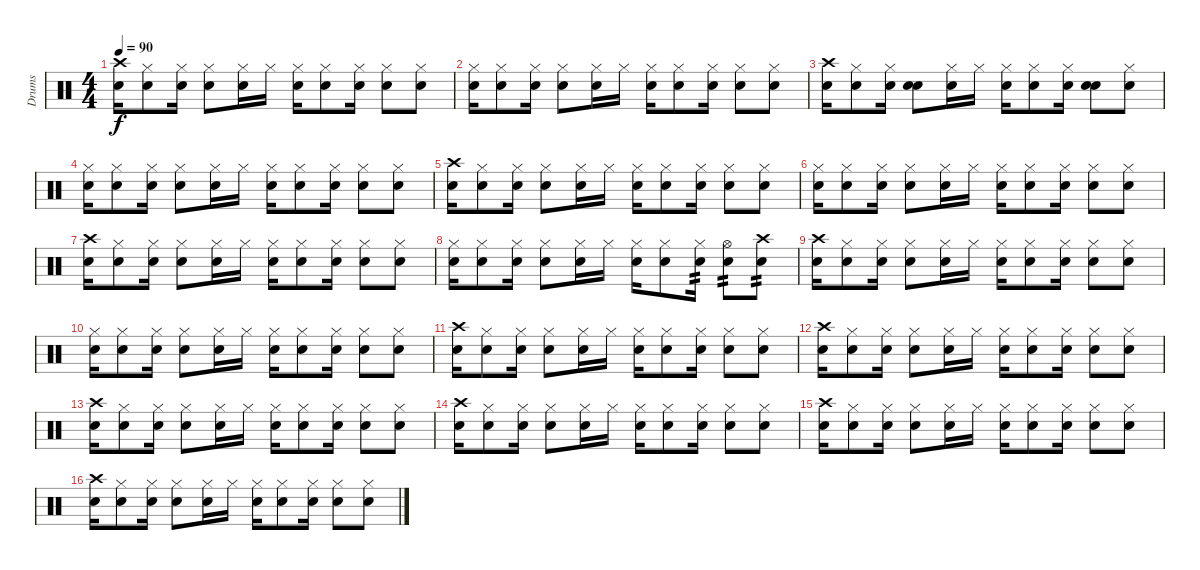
\track ("Drums" "Drums") {instrument percussion}
\staff {score}
\articulation defaults
\ts (4 4)
\tempo 90
\clef neutral
\ks c
("Crash high (hit)" "Snare (hit) 2").16{dy f} ("Hi-Hat (closed)" "Snare (hit) 2").8 ("Hi-Hat (closed)" "Snare (hit) 2").16 ("Hi-Hat (closed)" "Snare (hit) 2").8 ("Hi-Hat (closed)" "Snare (hit) 2").16 "Hi-Hat (closed)".16 ("Hi-Hat (closed)" "Snare (hit) 2").16 ("Hi-Hat (closed)" "Snare (hit) 2").8 ("Hi-Hat (closed)" "Snare (hit) 2").16 ("Hi-Hat (closed)" "Snare (hit) 2").8 ("Hi-Hat (closed)" "Snare (hit) 2").8 |
("Hi-Hat (closed)" "Snare (hit) 2").16 ("Hi-Hat (closed)" "Snare (hit) 2").8 ("Hi-Hat (closed)" "Snare (hit) 2").16 ("Hi-Hat (closed)" "Snare (hit) 2").8 ("Hi-Hat (closed)" "Snare (hit) 2").16 "Hi-Hat (closed)".16 ("Hi-Hat (closed)" "Snare (hit) 2").16 ("Hi-Hat (closed)" "Snare (hit) 2").8 ("Hi-Hat (closed)" "Snare (hit) 2").16 ("Hi-Hat (closed)" "Snare (hit) 2").8 ("Hi-Hat (closed)" "Snare (hit) 2").8 |
("Crash high (hit)" "Snare (hit) 2").16 ("Hi-Hat (closed)" "Snare (hit) 2").8 ("Hi-Hat (closed)" "Snare (hit) 2").16 ("Snare (hit)" "Snare (hit) 2").8 ("Hi-Hat (closed)" "Snare (hit) 2").16 "Hi-Hat (closed)".16 ("Hi-Hat (closed)" "Snare (hit) 2").16 ("Hi-Hat (closed)" "Snare (hit) 2").8 ("Hi-Hat (closed)" "Snare (hit) 2").16 ("Snare (hit)" "Snare (hit) 2").8 ("Hi-Hat (closed)" "Snare (hit) 2").8 |
("Hi-Hat (closed)" "Snare (hit) 2").16 ("Hi-Hat (closed)" "Snare (hit) 2").8 ("Hi-Hat (closed)" "Snare (hit) 2").16 ("Hi-Hat (closed)" "Snare (hit) 2").8 ("Hi-Hat (closed)" "Snare (hit) 2").16 "Hi-Hat (closed)".16 ("Hi-Hat (closed)" "Snare (hit) 2").16 ("Hi-Hat (closed)" "Snare (hit) 2").8 ("Hi-Hat (closed)" "Snare (hit) 2").16 ("Hi-Hat (closed)" "Snare (hit) 2").8 ("Hi-Hat (closed)" "Snare (hit) 2").8 |
("Crash high (hit)" "Snare (hit) 2").16 ("Hi-Hat (closed)" "Snare (hit) 2").8 ("Hi-Hat (closed)" "Snare (hit) 2").16 ("Hi-Hat (closed)" "Snare (hit) 2").8 ("Hi-Hat (closed)" "Snare (hit) 2").16 "Hi-Hat (closed)".16 ("Hi-Hat (closed)" "Snare (hit) 2").16 ("Hi-Hat (closed)" "Snare (hit) 2").8 ("Hi-Hat (closed)" "Snare (hit) 2").16 ("Hi-Hat (closed)" "Snare (hit) 2").8 ("Hi-Hat (closed)" "Snare (hit) 2").8 |
("Hi-Hat (closed)" "Snare (hit) 2").16 ("Hi-Hat (closed)" "Snare (hit) 2").8 ("Hi-Hat (closed)" "Snare (hit) 2").16 ("Hi-Hat (closed)" "Snare (hit) 2").8 ("Hi-Hat (closed)" "Snare (hit) 2").16 "Hi-Hat (closed)".16 ("Hi-Hat (closed)" "Snare (hit) 2").16 ("Hi-Hat (closed)" "Snare (hit) 2").8 ("Hi-Hat (closed)" "Snare (hit) 2").16 ("Hi-Hat (closed)" "Snare (hit) 2").8 ("Hi-Hat (closed)" "Snare (hit) 2").8 |
("Crash high (hit)" "Snare (hit) 2").16 ("Hi-Hat (closed)" "Snare (hit) 2").8 ("Hi-Hat (closed)" "Snare (hit) 2").16 ("Hi-Hat (closed)" "Snare (hit) 2").8 ("Hi-Hat (closed)" "Snare (hit) 2").16 "Hi-Hat (closed)".16 ("Hi-Hat (closed)" "Snare (hit) 2").16 ("Hi-Hat (closed)" "Snare (hit) 2").8 ("Hi-Hat (closed)" "Snare (hit) 2").16 ("Hi-Hat (closed)" "Snare (hit) 2").8 ("Hi-Hat (closed)" "Snare (hit) 2").8 |
("Hi-Hat (closed)" "Snare (hit) 2").16 ("Hi-Hat (closed)" "Snare (hit) 2").8 ("Hi-Hat (closed)" "Snare (hit) 2").16 ("Hi-Hat (closed)" "Snare (hit) 2").8 ("Hi-Hat (closed)" "Snare (hit) 2").16 "Hi-Hat (closed)".16 ("Hi-Hat (closed)" "Snare (hit) 2").16 ("Hi-Hat (closed)" "Snare (hit) 2").8 ("Hi-Hat (closed)" "Snare (hit) 2").16{tp 2} ("Hi-Hat (open)" "Snare (hit) 2").8{tp 2} ("Crash high (hit)" "Snare (hit) 2").8{tp 2} |
("Crash high (hit)" "Snare (hit) 2").16 ("Hi-Hat (closed)" "Snare (hit) 2").8 ("Hi-Hat (closed)" "Snare (hit) 2").16 ("Hi-Hat (closed)" "Snare (hit) 2").8 ("Hi-Hat (closed)" "Snare (hit) 2").16 "Hi-Hat (closed)".16 ("Hi-Hat (closed)" "Snare (hit) 2").16 ("Hi-Hat (closed)" "Snare (hit) 2").8 ("Hi-Hat (closed)" "Snare (hit) 2").16 ("Hi-Hat (closed)" "Snare (hit) 2").8 ("Hi-Hat (closed)" "Snare (hit) 2").8 |
("Hi-Hat (closed)" "Snare (hit) 2").16 ("Hi-Hat (closed)" "Snare (hit) 2").8 ("Hi-Hat (closed)" "Snare (hit) 2").16 ("Hi-Hat (closed)" "Snare (hit) 2").8 ("Hi-Hat (closed)" "Snare (hit) 2").16 "Hi-Hat (closed)".16 ("Hi-Hat (closed)" "Snare (hit) 2").16 ("Hi-Hat (closed)" "Snare (hit) 2").8 ("Hi-Hat (closed)" "Snare (hit) 2").16 ("Hi-Hat (closed)" "Snare (hit) 2").8 ("Hi-Hat (closed)" "Snare (hit) 2").8 |
("Crash high (hit)" "Snare (hit) 2").16 ("Hi-Hat (closed)" "Snare (hit) 2").8 ("Hi-Hat (closed)" "Snare (hit) 2").16 ("Hi-Hat (closed)" "Snare (hit) 2").8 ("Hi-Hat (closed)" "Snare (hit) 2").16 "Hi-Hat (closed)".16 ("Hi-Hat (closed)" "Snare (hit) 2").16 ("Hi-Hat (closed)" "Snare (hit) 2").8 ("Hi-Hat (closed)" "Snare (hit) 2").16 ("Hi-Hat (closed)" "Snare (hit) 2").8 ("Hi-Hat (closed)" "Snare (hit) 2").8 |
("Crash high (hit)" "Snare (hit) 2").16 ("Hi-Hat (closed)" "Snare (hit) 2").8 ("Hi-Hat (closed)" "Snare (hit) 2").16 ("Hi-Hat (closed)" "Snare (hit) 2").8 ("Hi-Hat (closed)" "Snare (hit) 2").16 "Hi-Hat (closed)".16 ("Hi-Hat (closed)" "Snare (hit) 2").16 ("Hi-Hat (closed)" "Snare (hit) 2").8 ("Hi-Hat (closed)" "Snare (hit) 2").16 ("Hi-Hat (closed)" "Snare (hit) 2").8 ("Hi-Hat (closed)" "Snare (hit) 2").8 |
("Crash high (hit)" "Snare (hit) 2").16 ("Hi-Hat (closed)" "Snare (hit) 2").8 ("Hi-Hat (closed)" "Snare (hit) 2").16 ("Hi-Hat (closed)" "Snare (hit) 2").8 ("Hi-Hat (closed)" "Snare (hit) 2").16 "Hi-Hat (closed)".16 ("Hi-Hat (closed)" "Snare (hit) 2").16 ("Hi-Hat (closed)" "Snare (hit) 2").8 ("Hi-Hat (closed)" "Snare (hit) 2").16 ("Hi-Hat (closed)" "Snare (hit) 2").8 ("Hi-Hat (closed)" "Snare (hit) 2").8 |
("Crash high (hit)" "Snare (hit) 2").16 ("Hi-Hat (closed)" "Snare (hit) 2").8 ("Hi-Hat (closed)" "Snare (hit) 2").16 ("Hi-Hat (closed)" "Snare (hit) 2").8 ("Hi-Hat (closed)" "Snare (hit) 2").16 "Hi-Hat (closed)".16 ("Hi-Hat (closed)" "Snare (hit) 2").16 ("Hi-Hat (closed)" "Snare (hit) 2").8 ("Hi-Hat (closed)" "Snare (hit) 2").16 ("Hi-Hat (closed)" "Snare (hit) 2").8 ("Hi-Hat (closed)" "Snare (hit) 2").8 |
("Crash high (hit)" "Snare (hit) 2").16 ("Hi-Hat (closed)" "Snare (hit) 2").8 ("Hi-Hat (closed)" "Snare (hit) 2").16 ("Hi-Hat (closed)" "Snare (hit) 2").8 ("Hi-Hat (closed)" "Snare (hit) 2").16 "Hi-Hat (closed)".16 ("Hi-Hat (closed)" "Snare (hit) 2").16 ("Hi-Hat (closed)" "Snare (hit) 2").8 ("Hi-Hat (closed)" "Snare (hit) 2").16 ("Hi-Hat (closed)" "Snare (hit) 2").8 ("Hi-Hat (closed)" "Snare (hit) 2").8 |
("Crash high (hit)" "Snare (hit) 2").16 ("Hi-Hat (closed)" "Snare (hit) 2").8 ("Hi-Hat (closed)" "Snare (hit) 2").16 ("Hi-Hat (closed)" "Snare (hit) 2").8 ("Hi-Hat (closed)" "Snare (hit) 2").16 "Hi-Hat (closed)".16 ("Hi-Hat (closed)" "Snare (hit) 2").16 ("Hi-Hat (closed)" "Snare (hit) 2").8 ("Hi-Hat (closed)" "Snare (hit) 2").16 ("Hi-Hat (closed)" "Snare (hit) 2").8 ("Hi-Hat (closed)" "Snare (hit) 2").8
